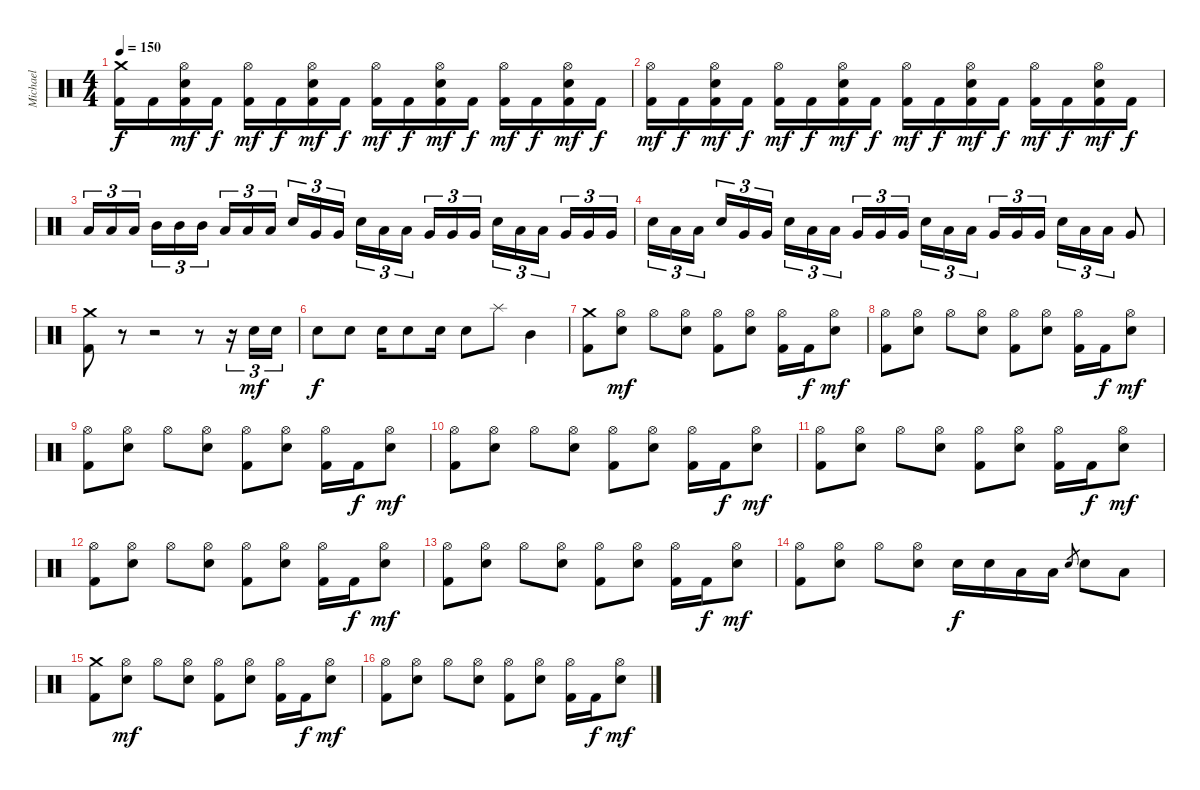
\track ("Michael" "Michael") {instrument percussion}
\staff {score}
\articulation defaults
\ts (4 4)
\tempo 150
\clef neutral
\ks c
("Crash medium (hit)" "Kick (hit) 2").16{dy f} "Kick (hit) 2".16 ("Hi-Hat (open)" "Electric Snare (hit)" "Kick (hit) 2").16{dy mf} "Kick (hit) 2".16{dy f} ("Hi-Hat (open)" "Kick (hit) 2").16{dy mf} "Kick (hit) 2".16{dy f} ("Hi-Hat (open)" "Electric Snare (hit)" "Kick (hit) 2").16{dy mf} "Kick (hit) 2".16{dy f} ("Hi-Hat (open)" "Kick (hit) 2").16{dy mf} "Kick (hit) 2".16{dy f} ("Hi-Hat (open)" "Electric Snare (hit)" "Kick (hit) 2").16{dy mf} "Kick (hit) 2".16{dy f} ("Hi-Hat (open)" "Kick (hit) 2").16{dy mf} "Kick (hit) 2".16{dy f} ("Hi-Hat (open)" "Electric Snare (hit)" "Kick (hit) 2").16{dy mf} "Kick (hit) 2".16{dy f} |
("Hi-Hat (open)" "Kick (hit) 2").16{dy mf} "Kick (hit) 2".16{dy f} ("Hi-Hat (open)" "Electric Snare (hit)" "Kick (hit) 2").16{dy mf} "Kick (hit) 2".16{dy f} ("Hi-Hat (open)" "Kick (hit) 2").16{dy mf} "Kick (hit) 2".16{dy f} ("Hi-Hat (open)" "Electric Snare (hit)" "Kick (hit) 2").16{dy mf} "Kick (hit) 2".16{dy f} ("Hi-Hat (open)" "Kick (hit) 2").16{dy mf} "Kick (hit) 2".16{dy f} ("Hi-Hat (open)" "Electric Snare (hit)" "Kick (hit) 2").16{dy mf} "Kick (hit) 2".16{dy f} ("Hi-Hat (open)" "Kick (hit) 2").16{dy mf} "Kick (hit) 2".16{dy f} ("Hi-Hat (open)" "Electric Snare (hit)" "Kick (hit) 2").16{dy mf} "Kick (hit) 2".16{dy f} |
"Low Tom (hit)".16{tu (3 2)} "Low Tom (hit)".16{tu (3 2)} "Low Tom (hit)".16{tu (3 2)} "Mid Tom (hit)".16{tu (3 2)} "Mid Tom (hit)".16{tu (3 2)} "Mid Tom (hit)".16{tu (3 2)} "Low Tom (hit)".16{tu (3 2)} "Low Tom (hit)".16{tu (3 2)} "Low Tom (hit)".16{tu (3 2)} "Electric Snare (hit)".16{tu (3 2)} "Very Low Tom (hit)".16{tu (3 2)} "Very Low Tom (hit)".16{tu (3 2)} "Electric Snare (hit)".16{tu (3 2)} "Low Tom (hit)".16{tu (3 2)} "Low Tom (hit)".16{tu (3 2)} "Very Low Tom (hit)".16{tu (3 2)} "Very Low Tom (hit)".16{tu (3 2)} "Very Low Tom (hit)".16{tu (3 2)} "Electric Snare (hit)".16{tu (3 2)} "Low Tom (hit)".16{tu (3 2)} "Low Tom (hit)".16{tu (3 2)} "Very Low Tom (hit)".16{tu (3 2)} "Very Low Tom (hit)".16{tu (3 2)} "Very Low Tom (hit)".16{tu (3 2)} |
"Electric Snare (hit)".16{tu (3 2)} "Low Tom (hit)".16{tu (3 2)} "Low Tom (hit)".16{tu (3 2)} "Electric Snare (hit)".16{tu (3 2)} "Very Low Tom (hit)".16{tu (3 2)} "Very Low Tom (hit)".16{tu (3 2)} "Electric Snare (hit)".16{tu (3 2)} "Low Tom (hit)".16{tu (3 2)} "Low Tom (hit)".16{tu (3 2)} "Very Low Tom (hit)".16{tu (3 2)} "Very Low Tom (hit)".16{tu (3 2)} "Very Low Tom (hit)".16{tu (3 2)} "Electric Snare (hit)".16{tu (3 2)} "Low Tom (hit)".16{tu (3 2)} "Low Tom (hit)".16{tu (3 2)} "Very Low Tom (hit)".16{tu (3 2)} "Very Low Tom (hit)".16{tu (3 2)} "Very Low Tom (hit)".16{tu (3 2)} "Electric Snare (hit)".16{tu (3 2)} "Low Tom (hit)".16{tu (3 2)} "Low Tom (hit)".16{tu (3 2)} "Very Low Tom (hit)".8 |
("Crash medium (hit)" "Kick (hit) 2").8 r.8 r.2 r.8 r.16{tu (3 2)} "Electric Snare (hit)".16{tu (3 2) dy mf} "Electric Snare (hit)".16{tu (3 2)} |
"Electric Snare (hit)".8{dy f} "Electric Snare (hit)".8 "Electric Snare (hit)".16 "Electric Snare (hit)".8 "Electric Snare (hit)".16 "Electric Snare (hit)".8 "Splash (hit)".8 "Mid Tom (hit)".4 |
("Crash medium (hit)" "Kick (hit) 2").8 ("Hi-Hat (open)" "Electric Snare (hit)").8{dy mf} "Hi-Hat (open)".8 ("Hi-Hat (open)" "Electric Snare (hit)").8 ("Hi-Hat (open)" "Kick (hit) 2").8 ("Hi-Hat (open)" "Electric Snare (hit)").8 ("Hi-Hat (open)" "Kick (hit) 2").16 "Kick (hit) 2".16{dy f} ("Hi-Hat (open)" "Electric Snare (hit)").8{dy mf} |
("Hi-Hat (open)" "Kick (hit) 2").8 ("Hi-Hat (open)" "Electric Snare (hit)").8 "Hi-Hat (open)".8 ("Hi-Hat (open)" "Electric Snare (hit)").8 ("Hi-Hat (open)" "Kick (hit) 2").8 ("Hi-Hat (open)" "Electric Snare (hit)").8 ("Hi-Hat (open)" "Kick (hit) 2").16 "Kick (hit) 2".16{dy f} ("Hi-Hat (open)" "Electric Snare (hit)").8{dy mf} |
("Hi-Hat (open)" "Kick (hit) 2").8 ("Hi-Hat (open)" "Electric Snare (hit)").8 "Hi-Hat (open)".8 ("Hi-Hat (open)" "Electric Snare (hit)").8 ("Hi-Hat (open)" "Kick (hit) 2").8 ("Hi-Hat (open)" "Electric Snare (hit)").8 ("Hi-Hat (open)" "Kick (hit) 2").16 "Kick (hit) 2".16{dy f} ("Hi-Hat (open)" "Electric Snare (hit)").8{dy mf} |
("Hi-Hat (open)" "Kick (hit) 2").8 ("Hi-Hat (open)" "Electric Snare (hit)").8 "Hi-Hat (open)".8 ("Hi-Hat (open)" "Electric Snare (hit)").8 ("Hi-Hat (open)" "Kick (hit) 2").8 ("Hi-Hat (open)" "Electric Snare (hit)").8 ("Hi-Hat (open)" "Kick (hit) 2").16 "Kick (hit) 2".16{dy f} ("Hi-Hat (open)" "Electric Snare (hit)").8{dy mf} |
("Hi-Hat (open)" "Kick (hit) 2").8 ("Hi-Hat (open)" "Electric Snare (hit)").8 "Hi-Hat (open)".8 ("Hi-Hat (open)" "Electric Snare (hit)").8 ("Hi-Hat (open)" "Kick (hit) 2").8 ("Hi-Hat (open)" "Electric Snare (hit)").8 ("Hi-Hat (open)" "Kick (hit) 2").16 "Kick (hit) 2".16{dy f} ("Hi-Hat (open)" "Electric Snare (hit)").8{dy mf} |
("Hi-Hat (open)" "Kick (hit) 2").8 ("Hi-Hat (open)" "Electric Snare (hit)").8 "Hi-Hat (open)".8 ("Hi-Hat (open)" "Electric Snare (hit)").8 ("Hi-Hat (open)" "Kick (hit) 2").8 ("Hi-Hat (open)" "Electric Snare (hit)").8 ("Hi-Hat (open)" "Kick (hit) 2").16 "Kick (hit) 2".16{dy f} ("Hi-Hat (open)" "Electric Snare (hit)").8{dy mf} |
("Hi-Hat (open)" "Kick (hit) 2").8 ("Hi-Hat (open)" "Electric Snare (hit)").8 "Hi-Hat (open)".8 ("Hi-Hat (open)" "Electric Snare (hit)").8 ("Hi-Hat (open)" "Kick (hit) 2").8 ("Hi-Hat (open)" "Electric Snare (hit)").8 ("Hi-Hat (open)" "Kick (hit) 2").16 "Kick (hit) 2".16{dy f} ("Hi-Hat (open)" "Electric Snare (hit)").8{dy mf} |
("Hi-Hat (open)" "Kick (hit) 2").8 ("Hi-Hat (open)" "Electric Snare (hit)").8 "Hi-Hat (open)".8 ("Hi-Hat (open)" "Electric Snare (hit)").8 "Electric Snare (hit)".16{dy f} "Electric Snare (hit)".16 "Low Tom (hit)".16 "Low Tom (hit)".16 "Electric Snare (hit)".8{gr} "Electric Snare (hit)".8 "Low Tom (hit)".8 |
("Crash medium (hit)" "Kick (hit) 2").8 ("Hi-Hat (open)" "Electric Snare (hit)").8{dy mf} "Hi-Hat (open)".8 ("Hi-Hat (open)" "Electric Snare (hit)").8 ("Hi-Hat (open)" "Kick (hit) 2").8 ("Hi-Hat (open)" "Electric Snare (hit)").8 ("Hi-Hat (open)" "Kick (hit) 2").16 "Kick (hit) 2".16{dy f} ("Hi-Hat (open)" "Electric Snare (hit)").8{dy mf} |
("Hi-Hat (open)" "Kick (hit) 2").8 ("Hi-Hat (open)" "Electric Snare (hit)").8 "Hi-Hat (open)".8 ("Hi-Hat (open)" "Electric Snare (hit)").8 ("Hi-Hat (open)" "Kick (hit) 2").8 ("Hi-Hat (open)" "Electric Snare (hit)").8 ("Hi-Hat (open)" "Kick (hit) 2").16 "Kick (hit) 2".16{dy f} ("Hi-Hat (open)" "Electric Snare (hit)").8{dy mf}
